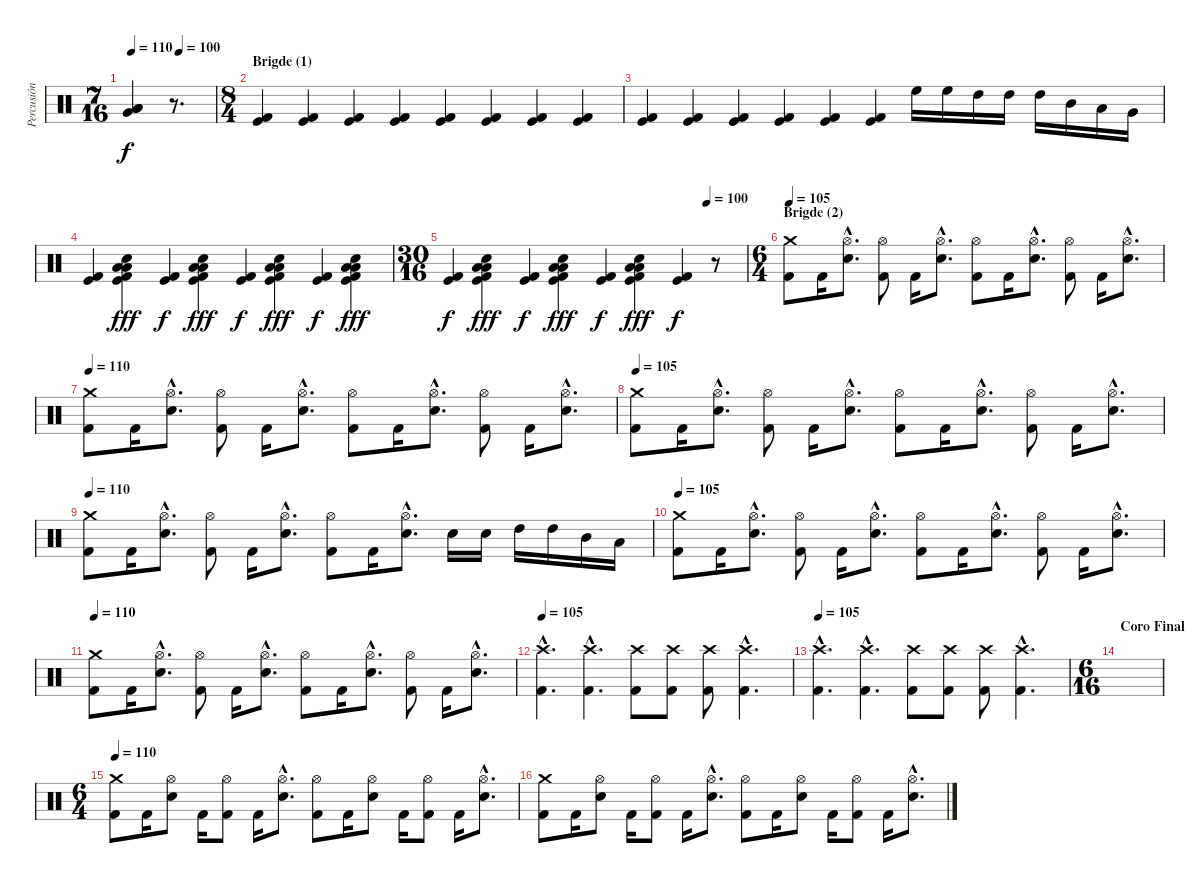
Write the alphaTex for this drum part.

\track ("Percusión" "Percusión") {instrument percussion}
\staff {score}
\articulation defaults
\ts (7 16)
\tempo 110
\tempo (100 0.5714285714285714)
\clef neutral
\ks c
("Low Tom (hit)" "Low Floor Tom (hit)" "Very Low Tom (hit)").4{dy f} r.8{d} |
\ts (8 4)
\section ("" "Brigde (1)")
("Kick (hit) 2" "Kick (hit)").4 ("Kick (hit) 2" "Kick (hit)").4 ("Kick (hit) 2" "Kick (hit)").4 ("Kick (hit) 2" "Kick (hit)").4 ("Kick (hit) 2" "Kick (hit)").4 ("Kick (hit) 2" "Kick (hit)").4 ("Kick (hit) 2" "Kick (hit)").4 ("Kick (hit) 2" "Kick (hit)").4 |
("Kick (hit) 2" "Kick (hit)").4 ("Kick (hit) 2" "Kick (hit)").4 ("Kick (hit) 2" "Kick (hit)").4 ("Kick (hit) 2" "Kick (hit)").4 ("Kick (hit) 2" "Kick (hit)").4 ("Kick (hit) 2" "Kick (hit)").4 "High Floor Tom (hit)".16 "High Floor Tom (hit)".16 "High Tom (hit)".16 "High Tom (hit)".16 "High Tom (hit)".16 "Mid Tom (hit)".16 "Low Tom (hit)".16 "Very Low Tom (hit)".16 |
("Kick (hit) 2" "Kick (hit)").4 ("Kick (hit) 2" "Snare (hit) 2" "Kick (hit)" "Low Tom (hit)" "Low Floor Tom (hit)").4{dy fff} ("Kick (hit) 2" "Kick (hit)").4{dy f} ("Kick (hit) 2" "Snare (hit) 2" "Kick (hit)" "Low Tom (hit)" "Low Floor Tom (hit)").4{dy fff} ("Kick (hit) 2" "Kick (hit)").4{dy f} ("Kick (hit) 2" "Snare (hit) 2" "Kick (hit)" "Low Tom (hit)" "Low Floor Tom (hit)").4{dy fff} ("Kick (hit) 2" "Kick (hit)").4{dy f} ("Kick (hit) 2" "Snare (hit) 2" "Kick (hit)" "Low Tom (hit)" "Low Floor Tom (hit)").4{dy fff} |
\ts (30 16)
\tempo (100 0.8666666666666667)
("Kick (hit) 2" "Kick (hit)").4{dy f} ("Kick (hit) 2" "Snare (hit) 2" "Kick (hit)" "Low Tom (hit)" "Low Floor Tom (hit)").4{dy fff} ("Kick (hit) 2" "Kick (hit)").4{dy f} ("Kick (hit) 2" "Snare (hit) 2" "Kick (hit)" "Low Tom (hit)" "Low Floor Tom (hit)").4{dy fff} ("Kick (hit) 2" "Kick (hit)").4{dy f} ("Kick (hit) 2" "Snare (hit) 2" "Kick (hit)" "Low Tom (hit)" "Low Floor Tom (hit)").4{dy fff} ("Kick (hit) 2" "Kick (hit)").4{dy f} r.8 |
\ts (6 4)
\section ("" "Brigde (2)")
\tempo 110
\tempo 105
("Crash medium (hit)" "Kick (hit) 2").8 "Kick (hit) 2".16 ("Hi-Hat (open)"{hac} "Snare (hit) 2"{hac}).8{d} ("Hi-Hat (open)" "Kick (hit) 2").8 "Kick (hit) 2".16 ("Hi-Hat (open)"{hac} "Snare (hit) 2"{hac}).8{d} ("Hi-Hat (open)" "Kick (hit) 2").8 "Kick (hit) 2".16 ("Hi-Hat (open)"{hac} "Snare (hit) 2"{hac}).8{d} ("Hi-Hat (open)" "Kick (hit) 2").8 "Kick (hit) 2".16 ("Hi-Hat (open)"{hac} "Snare (hit) 2"{hac}).8{d} |
\tempo 105
\tempo 110
("Crash medium (hit)" "Kick (hit) 2").8 "Kick (hit) 2".16 ("Hi-Hat (open)"{hac} "Snare (hit) 2"{hac}).8{d} ("Hi-Hat (open)" "Kick (hit) 2").8 "Kick (hit) 2".16 ("Hi-Hat (open)"{hac} "Snare (hit) 2"{hac}).8{d} ("Hi-Hat (open)" "Kick (hit) 2").8 "Kick (hit) 2".16 ("Hi-Hat (open)"{hac} "Snare (hit) 2"{hac}).8{d} ("Hi-Hat (open)" "Kick (hit) 2").8 "Kick (hit) 2".16 ("Hi-Hat (open)"{hac} "Snare (hit) 2"{hac}).8{d} |
\tempo 110
\tempo 105
("Crash medium (hit)" "Kick (hit) 2").8 "Kick (hit) 2".16 ("Hi-Hat (open)"{hac} "Snare (hit) 2"{hac}).8{d} ("Hi-Hat (open)" "Kick (hit) 2").8 "Kick (hit) 2".16 ("Hi-Hat (open)"{hac} "Snare (hit) 2"{hac}).8{d} ("Hi-Hat (open)" "Kick (hit) 2").8 "Kick (hit) 2".16 ("Hi-Hat (open)"{hac} "Snare (hit) 2"{hac}).8{d} ("Hi-Hat (open)" "Kick (hit) 2").8 "Kick (hit) 2".16 ("Hi-Hat (open)"{hac} "Snare (hit) 2"{hac}).8{d} |
\tempo 105
\tempo 110
("Crash medium (hit)" "Kick (hit) 2").8 "Kick (hit) 2".16 ("Hi-Hat (open)"{hac} "Snare (hit) 2"{hac}).8{d} ("Hi-Hat (open)" "Kick (hit) 2").8 "Kick (hit) 2".16 ("Hi-Hat (open)"{hac} "Snare (hit) 2"{hac}).8{d} ("Hi-Hat (open)" "Kick (hit) 2").8 "Kick (hit) 2".16 ("Hi-Hat (open)"{hac} "Snare (hit) 2"{hac}).8{d} "Snare (hit) 2".16 "Snare (hit) 2".16 "High Tom (hit)".16 "High Tom (hit)".16 "Mid Tom (hit)".16 "Low Tom (hit)".16 |
\tempo 110
\tempo 105
("Crash medium (hit)" "Kick (hit) 2").8 "Kick (hit) 2".16 ("Hi-Hat (open)"{hac} "Snare (hit) 2"{hac}).8{d} ("Hi-Hat (open)" "Kick (hit) 2").8 "Kick (hit) 2".16 ("Hi-Hat (open)"{hac} "Snare (hit) 2"{hac}).8{d} ("Hi-Hat (open)" "Kick (hit) 2").8 "Kick (hit) 2".16 ("Hi-Hat (open)"{hac} "Snare (hit) 2"{hac}).8{d} ("Hi-Hat (open)" "Kick (hit) 2").8 "Kick (hit) 2".16 ("Hi-Hat (open)"{hac} "Snare (hit) 2"{hac}).8{d} |
\tempo 105
\tempo 110
("Crash medium (hit)" "Kick (hit) 2").8 "Kick (hit) 2".16 ("Hi-Hat (open)"{hac} "Snare (hit) 2"{hac}).8{d} ("Hi-Hat (open)" "Kick (hit) 2").8 "Kick (hit) 2".16 ("Hi-Hat (open)"{hac} "Snare (hit) 2"{hac}).8{d} ("Hi-Hat (open)" "Kick (hit) 2").8 "Kick (hit) 2".16 ("Hi-Hat (open)"{hac} "Snare (hit) 2"{hac}).8{d} ("Hi-Hat (open)" "Kick (hit) 2").8 "Kick (hit) 2".16 ("Hi-Hat (open)"{hac} "Snare (hit) 2"{hac}).8{d} |
\tempo 110
\tempo 105
("Crash high (hit)"{hac} "Kick (hit) 2"{hac}).4{d} ("Crash high (hit)"{hac} "Kick (hit) 2"{hac}).4{d} ("Crash high (hit)" "Kick (hit) 2").8 ("Crash high (hit)" "Kick (hit) 2").8 ("Crash high (hit)" "Kick (hit) 2").8 ("Crash high (hit)"{hac} "Kick (hit) 2"{hac}).4{d} |
\tempo 110
\tempo 105
("Crash high (hit)"{hac} "Kick (hit) 2"{hac}).4{d} ("Crash high (hit)"{hac} "Kick (hit) 2"{hac}).4{d} ("Crash high (hit)" "Kick (hit) 2").8 ("Crash high (hit)" "Kick (hit) 2").8 ("Crash high (hit)" "Kick (hit) 2").8 ("Crash high (hit)"{hac} "Kick (hit) 2"{hac}).4{d} |
\ts (6 16)
\section ("" "Coro Final")
|
\ts (6 4)
\tempo 110
("Crash medium (hit)" "Kick (hit) 2").8 "Kick (hit) 2".16 ("Hi-Hat (open)" "Snare (hit) 2").8 "Kick (hit) 2".16 ("Hi-Hat (open)" "Kick (hit) 2").8 "Kick (hit) 2".16 ("Hi-Hat (open)"{hac} "Snare (hit) 2"{hac}).8{d} ("Hi-Hat (open)" "Kick (hit) 2").8 "Kick (hit) 2".16 ("Hi-Hat (open)" "Snare (hit) 2").8 "Kick (hit) 2".16 ("Hi-Hat (open)" "Kick (hit) 2").8 "Kick (hit) 2".16 ("Hi-Hat (open)" "Snare (hit) 2"{hac}).8{d} |
("Crash medium (hit)" "Kick (hit) 2").8 "Kick (hit) 2".16 ("Hi-Hat (open)" "Snare (hit) 2").8 "Kick (hit) 2".16 ("Hi-Hat (open)" "Kick (hit) 2").8 "Kick (hit) 2".16 ("Hi-Hat (open)"{hac} "Snare (hit) 2"{hac}).8{d} ("Hi-Hat (open)" "Kick (hit) 2").8 "Kick (hit) 2".16 ("Hi-Hat (open)" "Snare (hit) 2").8 "Kick (hit) 2".16 ("Hi-Hat (open)" "Kick (hit) 2").8 "Kick (hit) 2".16 ("Hi-Hat (open)" "Snare (hit) 2"{hac}).8{d}
